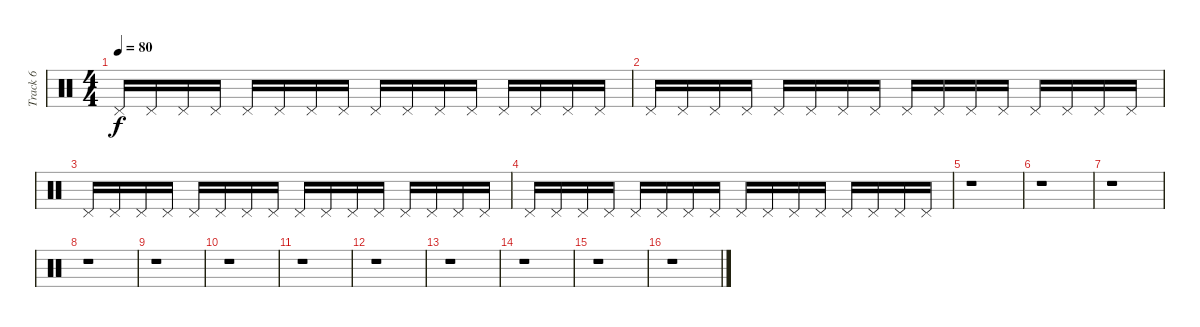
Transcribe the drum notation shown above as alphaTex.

\track ("Track 6" "Track 6") {instrument percussion}
\staff {score}
\articulation defaults
\ts (4 4)
\tempo 80
\clef neutral
\ks c "Pedal Hi-Hat (hit)".16{dy f} "Pedal Hi-Hat (hit)".16 "Pedal Hi-Hat (hit)".16 "Pedal Hi-Hat (hit)".16 "Pedal Hi-Hat (hit)".16 "Pedal Hi-Hat (hit)".16 "Pedal Hi-Hat (hit)".16 "Pedal Hi-Hat (hit)".16 "Pedal Hi-Hat (hit)".16 "Pedal Hi-Hat (hit)".16 "Pedal Hi-Hat (hit)".16 "Pedal Hi-Hat (hit)".16 "Pedal Hi-Hat (hit)".16 "Pedal Hi-Hat (hit)".16 "Pedal Hi-Hat (hit)".16 "Pedal Hi-Hat (hit)".16
|
"Pedal Hi-Hat (hit)".16 "Pedal Hi-Hat (hit)".16 "Pedal Hi-Hat (hit)".16 "Pedal Hi-Hat (hit)".16 "Pedal Hi-Hat (hit)".16 "Pedal Hi-Hat (hit)".16 "Pedal Hi-Hat (hit)".16 "Pedal Hi-Hat (hit)".16 "Pedal Hi-Hat (hit)".16 "Pedal Hi-Hat (hit)".16 "Pedal Hi-Hat (hit)".16 "Pedal Hi-Hat (hit)".16 "Pedal Hi-Hat (hit)".16 "Pedal Hi-Hat (hit)".16 "Pedal Hi-Hat (hit)".16 "Pedal Hi-Hat (hit)".16 |
"Pedal Hi-Hat (hit)".16 "Pedal Hi-Hat (hit)".16 "Pedal Hi-Hat (hit)".16 "Pedal Hi-Hat (hit)".16 "Pedal Hi-Hat (hit)".16 "Pedal Hi-Hat (hit)".16 "Pedal Hi-Hat (hit)".16 "Pedal Hi-Hat (hit)".16 "Pedal Hi-Hat (hit)".16 "Pedal Hi-Hat (hit)".16 "Pedal Hi-Hat (hit)".16 "Pedal Hi-Hat (hit)".16 "Pedal Hi-Hat (hit)".16 "Pedal Hi-Hat (hit)".16 "Pedal Hi-Hat (hit)".16 "Pedal Hi-Hat (hit)".16 |
"Pedal Hi-Hat (hit)".16 "Pedal Hi-Hat (hit)".16 "Pedal Hi-Hat (hit)".16 "Pedal Hi-Hat (hit)".16 "Pedal Hi-Hat (hit)".16 "Pedal Hi-Hat (hit)".16 "Pedal Hi-Hat (hit)".16 "Pedal Hi-Hat (hit)".16 "Pedal Hi-Hat (hit)".16 "Pedal Hi-Hat (hit)".16 "Pedal Hi-Hat (hit)".16 "Pedal Hi-Hat (hit)".16 "Pedal Hi-Hat (hit)".16 "Pedal Hi-Hat (hit)".16 "Pedal Hi-Hat (hit)".16 "Pedal Hi-Hat (hit)".16 |
r.1 |
r.1 |
r.1 |
r.1 |
r.1 |
r.1 |
r.1 |
r.1 |
r.1 |
r.1 |
r.1 |
r.1
